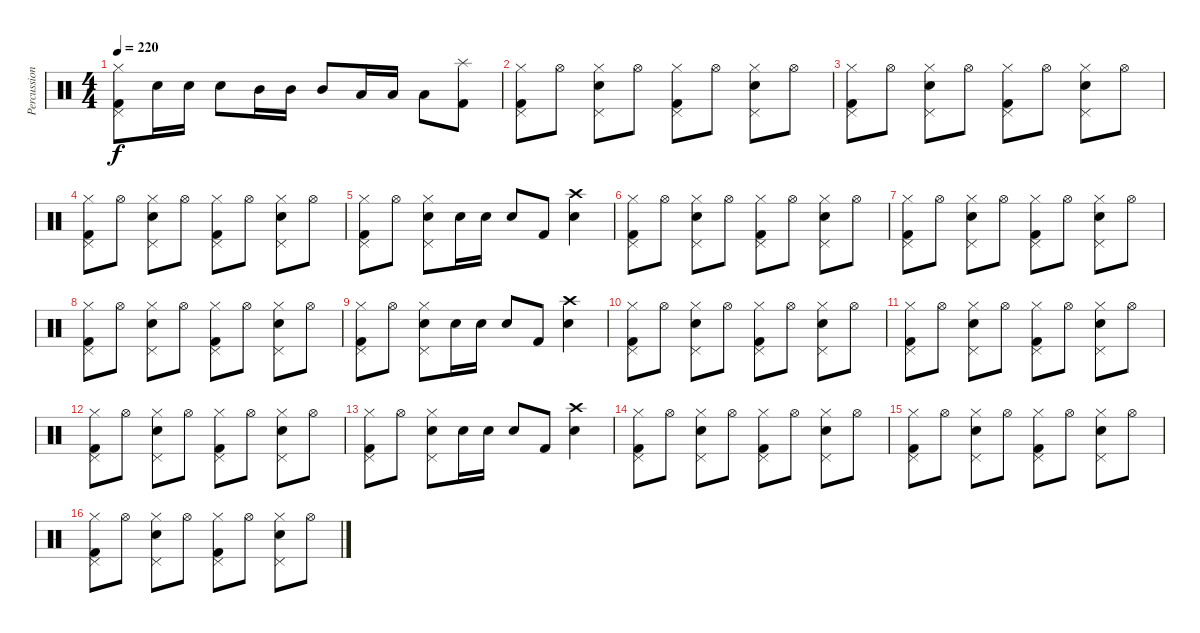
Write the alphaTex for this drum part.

\track ("Percussion" "Percussion") {instrument percussion}
\staff {score}
\articulation defaults
\ts (4 4)
\tempo 220
\clef neutral
\ks c
("Hi-Hat (closed)" "Pedal Hi-Hat (hit)" "Kick (hit) 2").8{dy f} "Electric Snare (hit)".16 "Electric Snare (hit)".16 "Electric Snare (hit)".8 "Mid Tom (hit)".16 "Mid Tom (hit)".16 "Mid Tom (hit)".8 "Low Tom (hit)".16 "Low Tom (hit)".16 "Low Tom (hit)".8 ("Splash (hit)" "Kick (hit) 2").8 |
("Hi-Hat (closed)" "Pedal Hi-Hat (hit)" "Kick (hit) 2").8 "Hi-Hat (open)".8 ("Hi-Hat (closed)" "Pedal Hi-Hat (hit)" "Electric Snare (hit)").8 "Hi-Hat (open)".8 ("Hi-Hat (closed)" "Pedal Hi-Hat (hit)" "Kick (hit) 2").8 "Hi-Hat (open)".8 ("Hi-Hat (closed)" "Pedal Hi-Hat (hit)" "Electric Snare (hit)").8 "Hi-Hat (open)".8 |
("Hi-Hat (closed)" "Pedal Hi-Hat (hit)" "Kick (hit) 2").8 "Hi-Hat (open)".8 ("Hi-Hat (closed)" "Pedal Hi-Hat (hit)" "Electric Snare (hit)").8 "Hi-Hat (open)".8 ("Hi-Hat (closed)" "Pedal Hi-Hat (hit)" "Kick (hit) 2").8 "Hi-Hat (open)".8 ("Hi-Hat (closed)" "Pedal Hi-Hat (hit)" "Electric Snare (hit)").8 "Hi-Hat (open)".8 |
("Hi-Hat (closed)" "Pedal Hi-Hat (hit)" "Kick (hit) 2").8 "Hi-Hat (open)".8 ("Hi-Hat (closed)" "Pedal Hi-Hat (hit)" "Electric Snare (hit)").8 "Hi-Hat (open)".8 ("Hi-Hat (closed)" "Pedal Hi-Hat (hit)" "Kick (hit) 2").8 "Hi-Hat (open)".8 ("Hi-Hat (closed)" "Pedal Hi-Hat (hit)" "Electric Snare (hit)").8 "Hi-Hat (open)".8 |
("Hi-Hat (closed)" "Pedal Hi-Hat (hit)" "Kick (hit) 2").8 "Hi-Hat (open)".8 ("Hi-Hat (closed)" "Pedal Hi-Hat (hit)" "Electric Snare (hit)").8 "Electric Snare (hit)".16 "Electric Snare (hit)".16 "Electric Snare (hit)".8 "Kick (hit) 2".8 ("Crash high (hit)" "Electric Snare (hit)").4 |
("Hi-Hat (closed)" "Pedal Hi-Hat (hit)" "Kick (hit) 2").8 "Hi-Hat (open)".8 ("Hi-Hat (closed)" "Pedal Hi-Hat (hit)" "Electric Snare (hit)").8 "Hi-Hat (open)".8 ("Hi-Hat (closed)" "Pedal Hi-Hat (hit)" "Kick (hit) 2").8 "Hi-Hat (open)".8 ("Hi-Hat (closed)" "Pedal Hi-Hat (hit)" "Electric Snare (hit)").8 "Hi-Hat (open)".8 |
("Hi-Hat (closed)" "Pedal Hi-Hat (hit)" "Kick (hit) 2").8 "Hi-Hat (open)".8 ("Hi-Hat (closed)" "Pedal Hi-Hat (hit)" "Electric Snare (hit)").8 "Hi-Hat (open)".8 ("Hi-Hat (closed)" "Pedal Hi-Hat (hit)" "Kick (hit) 2").8 "Hi-Hat (open)".8 ("Hi-Hat (closed)" "Pedal Hi-Hat (hit)" "Electric Snare (hit)").8 "Hi-Hat (open)".8 |
("Hi-Hat (closed)" "Pedal Hi-Hat (hit)" "Kick (hit) 2").8 "Hi-Hat (open)".8 ("Hi-Hat (closed)" "Pedal Hi-Hat (hit)" "Electric Snare (hit)").8 "Hi-Hat (open)".8 ("Hi-Hat (closed)" "Pedal Hi-Hat (hit)" "Kick (hit) 2").8 "Hi-Hat (open)".8 ("Hi-Hat (closed)" "Pedal Hi-Hat (hit)" "Electric Snare (hit)").8 "Hi-Hat (open)".8 |
("Hi-Hat (closed)" "Pedal Hi-Hat (hit)" "Kick (hit) 2").8 "Hi-Hat (open)".8 ("Hi-Hat (closed)" "Pedal Hi-Hat (hit)" "Electric Snare (hit)").8 "Electric Snare (hit)".16 "Electric Snare (hit)".16 "Electric Snare (hit)".8 "Kick (hit) 2".8 ("Crash high (hit)" "Electric Snare (hit)").4 |
("Hi-Hat (closed)" "Pedal Hi-Hat (hit)" "Kick (hit) 2").8 "Hi-Hat (open)".8 ("Hi-Hat (closed)" "Pedal Hi-Hat (hit)" "Electric Snare (hit)").8 "Hi-Hat (open)".8 ("Hi-Hat (closed)" "Pedal Hi-Hat (hit)" "Kick (hit) 2").8 "Hi-Hat (open)".8 ("Hi-Hat (closed)" "Pedal Hi-Hat (hit)" "Electric Snare (hit)").8 "Hi-Hat (open)".8 |
("Hi-Hat (closed)" "Pedal Hi-Hat (hit)" "Kick (hit) 2").8 "Hi-Hat (open)".8 ("Hi-Hat (closed)" "Pedal Hi-Hat (hit)" "Electric Snare (hit)").8 "Hi-Hat (open)".8 ("Hi-Hat (closed)" "Pedal Hi-Hat (hit)" "Kick (hit) 2").8 "Hi-Hat (open)".8 ("Hi-Hat (closed)" "Pedal Hi-Hat (hit)" "Electric Snare (hit)").8 "Hi-Hat (open)".8 |
("Hi-Hat (closed)" "Pedal Hi-Hat (hit)" "Kick (hit) 2").8 "Hi-Hat (open)".8 ("Hi-Hat (closed)" "Pedal Hi-Hat (hit)" "Electric Snare (hit)").8 "Hi-Hat (open)".8 ("Hi-Hat (closed)" "Pedal Hi-Hat (hit)" "Kick (hit) 2").8 "Hi-Hat (open)".8 ("Hi-Hat (closed)" "Pedal Hi-Hat (hit)" "Electric Snare (hit)").8 "Hi-Hat (open)".8 |
("Hi-Hat (closed)" "Pedal Hi-Hat (hit)" "Kick (hit) 2").8 "Hi-Hat (open)".8 ("Hi-Hat (closed)" "Pedal Hi-Hat (hit)" "Electric Snare (hit)").8 "Electric Snare (hit)".16 "Electric Snare (hit)".16 "Electric Snare (hit)".8 "Kick (hit) 2".8 ("Crash high (hit)" "Electric Snare (hit)").4 |
("Hi-Hat (closed)" "Pedal Hi-Hat (hit)" "Kick (hit) 2").8 "Hi-Hat (open)".8 ("Hi-Hat (closed)" "Pedal Hi-Hat (hit)" "Electric Snare (hit)").8 "Hi-Hat (open)".8 ("Hi-Hat (closed)" "Pedal Hi-Hat (hit)" "Kick (hit) 2").8 "Hi-Hat (open)".8 ("Hi-Hat (closed)" "Pedal Hi-Hat (hit)" "Electric Snare (hit)").8 "Hi-Hat (open)".8 |
("Hi-Hat (closed)" "Pedal Hi-Hat (hit)" "Kick (hit) 2").8 "Hi-Hat (open)".8 ("Hi-Hat (closed)" "Pedal Hi-Hat (hit)" "Electric Snare (hit)").8 "Hi-Hat (open)".8 ("Hi-Hat (closed)" "Pedal Hi-Hat (hit)" "Kick (hit) 2").8 "Hi-Hat (open)".8 ("Hi-Hat (closed)" "Pedal Hi-Hat (hit)" "Electric Snare (hit)").8 "Hi-Hat (open)".8 |
("Hi-Hat (closed)" "Pedal Hi-Hat (hit)" "Kick (hit) 2").8 "Hi-Hat (open)".8 ("Hi-Hat (closed)" "Pedal Hi-Hat (hit)" "Electric Snare (hit)").8 "Hi-Hat (open)".8 ("Hi-Hat (closed)" "Pedal Hi-Hat (hit)" "Kick (hit) 2").8 "Hi-Hat (open)".8 ("Hi-Hat (closed)" "Pedal Hi-Hat (hit)" "Electric Snare (hit)").8 "Hi-Hat (open)".8
